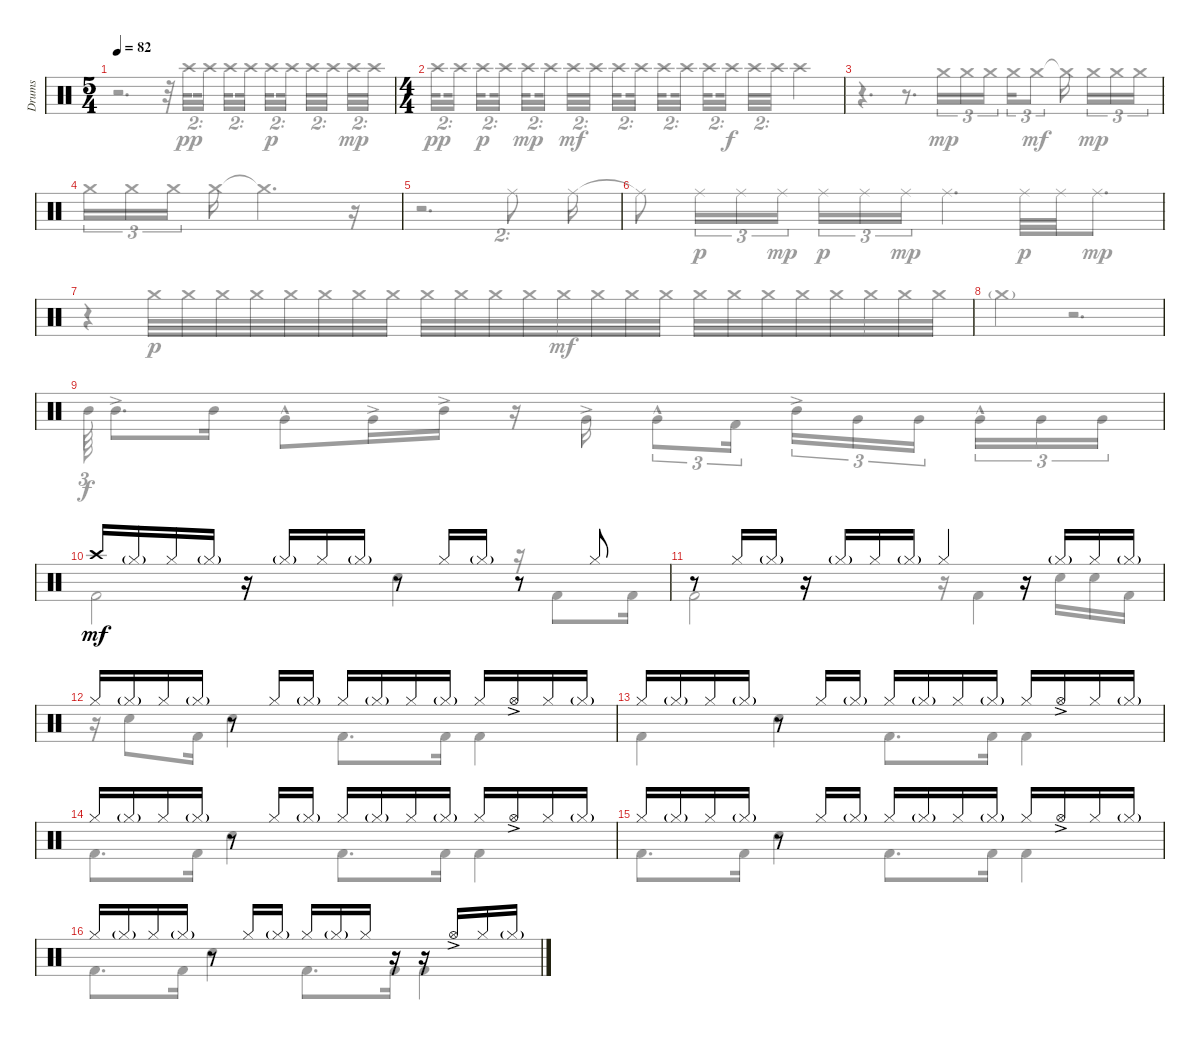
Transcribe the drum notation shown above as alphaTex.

\track ("Drums" "Drums") {instrument percussion}
\staff {score}
\articulation defaults
\voice
\ts (5 4)
\tempo 82
\clef neutral
\ks c
|
\ts (4 4)
|
|
|
|
|
|
|
|
"Crash high (hit)".16{dy mf} "Hi-Hat (closed)"{g}.16 "Hi-Hat (closed)".16 "Hi-Hat (closed)"{g}.16 r.16 "Hi-Hat (closed)"{g}.16 "Hi-Hat (closed)".16 "Hi-Hat (closed)"{g}.16 r.8 "Hi-Hat (closed)".16 "Hi-Hat (closed)"{g}.16 r.8 "Hi-Hat (closed)".8 |
r.8 "Hi-Hat (closed)".16 "Hi-Hat (closed)"{g}.16 r.16 "Hi-Hat (closed)"{g}.16 "Hi-Hat (closed)".16 "Hi-Hat (closed)"{g}.16 "Hi-Hat (closed)".4 r.16 "Hi-Hat (closed)"{g}.16 "Hi-Hat (closed)".16 "Hi-Hat (closed)"{g}.16 |
"Hi-Hat (closed)".16 "Hi-Hat (closed)"{g}.16 "Hi-Hat (closed)".16 "Hi-Hat (closed)"{g}.16 r.8 "Hi-Hat (closed)".16 "Hi-Hat (closed)"{g}.16 "Hi-Hat (closed)".16 "Hi-Hat (closed)"{g}.16 "Hi-Hat (closed)".16 "Hi-Hat (closed)"{g}.16 "Hi-Hat (closed)".16 "Hi-Hat (open)"{ac}.16 "Hi-Hat (closed)".16 "Hi-Hat (closed)"{g}.16 |
"Hi-Hat (closed)".16 "Hi-Hat (closed)"{g}.16 "Hi-Hat (closed)".16 "Hi-Hat (closed)"{g}.16 r.8 "Hi-Hat (closed)".16 "Hi-Hat (closed)"{g}.16 "Hi-Hat (closed)".16 "Hi-Hat (closed)"{g}.16 "Hi-Hat (closed)".16 "Hi-Hat (closed)"{g}.16 "Hi-Hat (closed)".16 "Hi-Hat (open)"{ac}.16 "Hi-Hat (closed)".16 "Hi-Hat (closed)"{g}.16 |
"Hi-Hat (closed)".16 "Hi-Hat (closed)"{g}.16 "Hi-Hat (closed)".16 "Hi-Hat (closed)"{g}.16 r.8 "Hi-Hat (closed)".16 "Hi-Hat (closed)"{g}.16 "Hi-Hat (closed)".16 "Hi-Hat (closed)"{g}.16 "Hi-Hat (closed)".16 "Hi-Hat (closed)"{g}.16 "Hi-Hat (closed)".16 "Hi-Hat (open)"{ac}.16 "Hi-Hat (closed)".16 "Hi-Hat (closed)"{g}.16 |
"Hi-Hat (closed)".16 "Hi-Hat (closed)"{g}.16 "Hi-Hat (closed)".16 "Hi-Hat (closed)"{g}.16 r.8 "Hi-Hat (closed)".16 "Hi-Hat (closed)"{g}.16 "Hi-Hat (closed)".16 "Hi-Hat (closed)"{g}.16 "Hi-Hat (closed)".16 "Hi-Hat (closed)"{g}.16 "Hi-Hat (closed)".16 "Hi-Hat (open)"{ac}.16 "Hi-Hat (closed)".16 "Hi-Hat (closed)"{g}.16 |
"Hi-Hat (closed)".16 "Hi-Hat (closed)"{g}.16 "Hi-Hat (closed)".16 "Hi-Hat (closed)"{g}.16 r.8 "Hi-Hat (closed)".16 "Hi-Hat (closed)"{g}.16 "Hi-Hat (closed)".16 "Hi-Hat (closed)"{g}.16 "Hi-Hat (closed)".16 r.16 r.16 "Hi-Hat (open)"{ac}.16 "Hi-Hat (closed)".16 "Hi-Hat (closed)"{g}.16
\voice
\clef neutral
\ottava regular
\simile none
\ks c
r.2{d dy f} r.32 "Crash high (hit)".32{tu (2 -1) dy pp beam splitsecondary} "Crash high (hit)".32{tu (2 -1) beam splitsecondary} "Crash high (hit)".32{tu (2 -1) beam splitsecondary} "Crash high (hit)".32{tu (2 -1) beam splitsecondary} "Crash high (hit)".32{tu (2 -1) dy p beam splitsecondary} "Crash high (hit)".32{tu (2 -1)} "Crash high (hit)".32{tu (2 -1)} "Crash high (hit)".32{tu (2 -1) beam splitsecondary} "Crash high (hit)".32{tu (2 -1) dy mp} "Crash high (hit)".32{tu (2 -1)} |
"Crash high (hit)".32{tu (2 -1) dy pp beam splitsecondary} "Crash high (hit)".32{tu (2 -1) beam splitsecondary} "Crash high (hit)".32{tu (2 -1) dy p beam splitsecondary} "Crash high (hit)".32{tu (2 -1) beam splitsecondary} "Crash high (hit)".32{tu (2 -1) dy mp beam splitsecondary} "Crash high (hit)".32{tu (2 -1) beam splitsecondary} "Crash high (hit)".32{tu (2 -1) dy mf} "Crash high (hit)".32{tu (2 -1)} "Crash high (hit)".32{tu (2 -1) beam splitsecondary} "Crash high (hit)".32{tu (2 -1) beam splitsecondary} "Crash high (hit)".32{tu (2 -1) beam splitsecondary} "Crash high (hit)".32{tu (2 -1) beam splitsecondary} "Crash high (hit)".32{tu (2 -1) beam splitsecondary} "Crash high (hit)".32{tu (2 -1) dy f beam splitsecondary} "Crash high (hit)".32{tu (2 -1)} "Crash high (hit)".32{tu (2 -1)} "Crash high (hit)".4 |
r.4{d} r.8{d} "Crash medium (hit)".16{tu (3 2) dy mp} "Crash medium (hit)".16{tu (3 2)} "Crash medium (hit)".16{tu (3 2) beam splitsecondary} "Crash medium (hit)".16{tu (3 2)} "Crash medium (hit)".8{tu (3 2) dy mf} "Crash medium (hit)"{t}.16{beam splitsecondary} "Crash medium (hit)".16{tu (3 2) dy mp} "Crash medium (hit)".16{tu (3 2)} "Crash medium (hit)".16{tu (3 2)} |
"Crash medium (hit)".16{tu (3 2)} "Crash medium (hit)".16{tu (3 2)} "Crash medium (hit)".16{tu (3 2) beam splitsecondary} "Crash medium (hit)".16 "Crash medium (hit)"{t}.2{d} r.16 |
r.2{d} "Ride (middle)".8{tu (2 -1)} "Ride (middle)".16 |
"Ride (middle)"{t}.8 "Ride (middle)".16{tu (3 2) dy p} "Ride (middle)".16{tu (3 2)} "Ride (middle)".16{tu (3 2) dy mp} "Ride (middle)".16{tu (3 2) dy p} "Ride (middle)".16{tu (3 2)} "Ride (middle)".16{tu (3 2) dy mp} "Ride (middle)".4{d} "Ride (middle)".32{dy p} "Ride (middle)".32 "Ride (middle)".8{d dy mp} |
r.4 "Crash medium (hit)".32{dy p} "Crash medium (hit)".32 "Crash medium (hit)".32 "Crash medium (hit)".32 "Crash medium (hit)".32 "Crash medium (hit)".32 "Crash medium (hit)".32 "Crash medium (hit)".32 "Crash medium (hit)".32 "Crash medium (hit)".32 "Crash medium (hit)".32 "Crash medium (hit)".32 "Crash medium (hit)".32{dy mf} "Crash medium (hit)".32 "Crash medium (hit)".32 "Crash medium (hit)".32 "Crash medium (hit)".32 "Crash medium (hit)".32 "Crash medium (hit)".32 "Crash medium (hit)".32 "Crash medium (hit)".32 "Crash medium (hit)".32 "Crash medium (hit)".32 "Crash medium (hit)".32 |
"Crash medium (hit)"{g}.4 r.2{d} |
"Mid Tom (hit)".64{tu (3 2) dy f} "Mid Tom (hit)"{ac}.8{d} "Mid Tom (hit)".16 "Very Low Tom (hit)"{hac}.8 "Very Low Tom (hit)"{ac}.16 "Mid Tom (hit)"{ac}.16 r.16 "Very Low Tom (hit)"{ac}.16 "Very Low Tom (hit)"{hac}.8{tu (3 2)} "Kick (hit) 2".16{tu (3 2)} "Mid Tom (hit)"{ac}.16{tu (3 2)} "Very Low Tom (hit)".16{tu (3 2)} "Very Low Tom (hit)".16{tu (3 2) beam splitsecondary} "Very Low Tom (hit)"{hac}.16{tu (3 2)} "Very Low Tom (hit)".16{tu (3 2)} "Very Low Tom (hit)".16{tu (3 2)} |
"Kick (hit) 2".2{dy mf} "Snare (hit) 2".4 r.16 "Kick (hit) 2".8 "Kick (hit) 2".16 |
"Kick (hit) 2".2 r.16 "Kick (hit) 2".4 "Snare (hit) 2".16 "Snare (hit) 2".16 "Kick (hit) 2".16 |
r.16 "Snare (hit) 2".8 "Kick (hit) 2".16 "Snare (hit) 2".4 "Kick (hit) 2".8{d} "Kick (hit) 2".16 "Kick (hit) 2".4 |
"Kick (hit) 2".4 "Snare (hit) 2".4 "Kick (hit) 2".8{d} "Kick (hit) 2".16 "Kick (hit) 2".4 |
"Kick (hit) 2".8{d} "Kick (hit) 2".16 "Snare (hit) 2".4 "Kick (hit) 2".8{d} "Kick (hit) 2".16 "Kick (hit) 2".4 |
"Kick (hit) 2".8{d} "Kick (hit) 2".16 "Snare (hit) 2".4 "Kick (hit) 2".8{d} "Kick (hit) 2".16 "Kick (hit) 2".4 |
"Kick (hit) 2".8{d} "Kick (hit) 2".16 "Snare (hit) 2".4 "Kick (hit) 2".8{d} "Kick (hit) 2".16 "Kick (hit) 2".4
